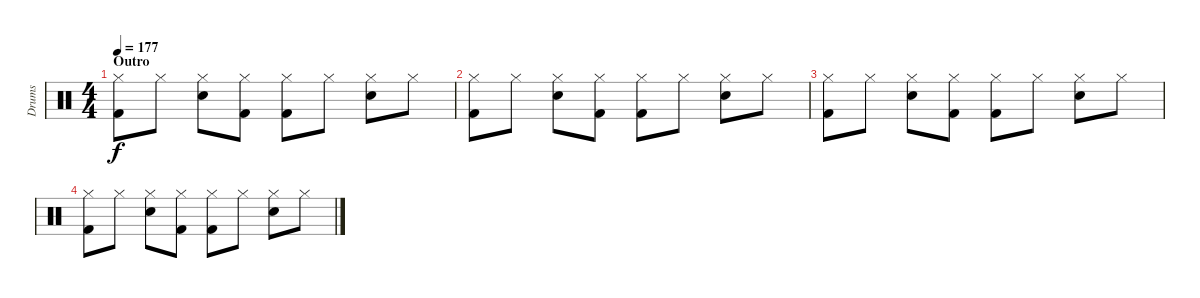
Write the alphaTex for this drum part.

\track ("Drums" "Drums") {instrument percussion}
\staff {score}
\articulation defaults
\ts (4 4)
\section ("" "Outro")
\tempo 177
\clef neutral
\ks c
("Hi-Hat (closed)" "Kick (hit) 2").8{dy f} "Hi-Hat (closed)".8 ("Hi-Hat (closed)" "Snare (hit) 2").8 ("Hi-Hat (closed)" "Kick (hit) 2").8 ("Hi-Hat (closed)" "Kick (hit) 2").8 "Hi-Hat (closed)".8 ("Hi-Hat (closed)" "Snare (hit) 2").8 "Hi-Hat (closed)".8 |
("Hi-Hat (closed)" "Kick (hit) 2").8 "Hi-Hat (closed)".8 ("Hi-Hat (closed)" "Snare (hit) 2").8 ("Hi-Hat (closed)" "Kick (hit) 2").8 ("Hi-Hat (closed)" "Kick (hit) 2").8 "Hi-Hat (closed)".8 ("Hi-Hat (closed)" "Snare (hit) 2").8 "Hi-Hat (closed)".8 |
("Hi-Hat (closed)" "Kick (hit) 2").8 "Hi-Hat (closed)".8 ("Hi-Hat (closed)" "Snare (hit) 2").8 ("Hi-Hat (closed)" "Kick (hit) 2").8 ("Hi-Hat (closed)" "Kick (hit) 2").8 "Hi-Hat (closed)".8 ("Hi-Hat (closed)" "Snare (hit) 2").8 "Hi-Hat (closed)".8 |
("Hi-Hat (closed)" "Kick (hit) 2").8 "Hi-Hat (closed)".8 ("Hi-Hat (closed)" "Snare (hit) 2").8 ("Hi-Hat (closed)" "Kick (hit) 2").8 ("Hi-Hat (closed)" "Kick (hit) 2").8 "Hi-Hat (closed)".8 ("Hi-Hat (closed)" "Snare (hit) 2").8 "Hi-Hat (closed)".8
